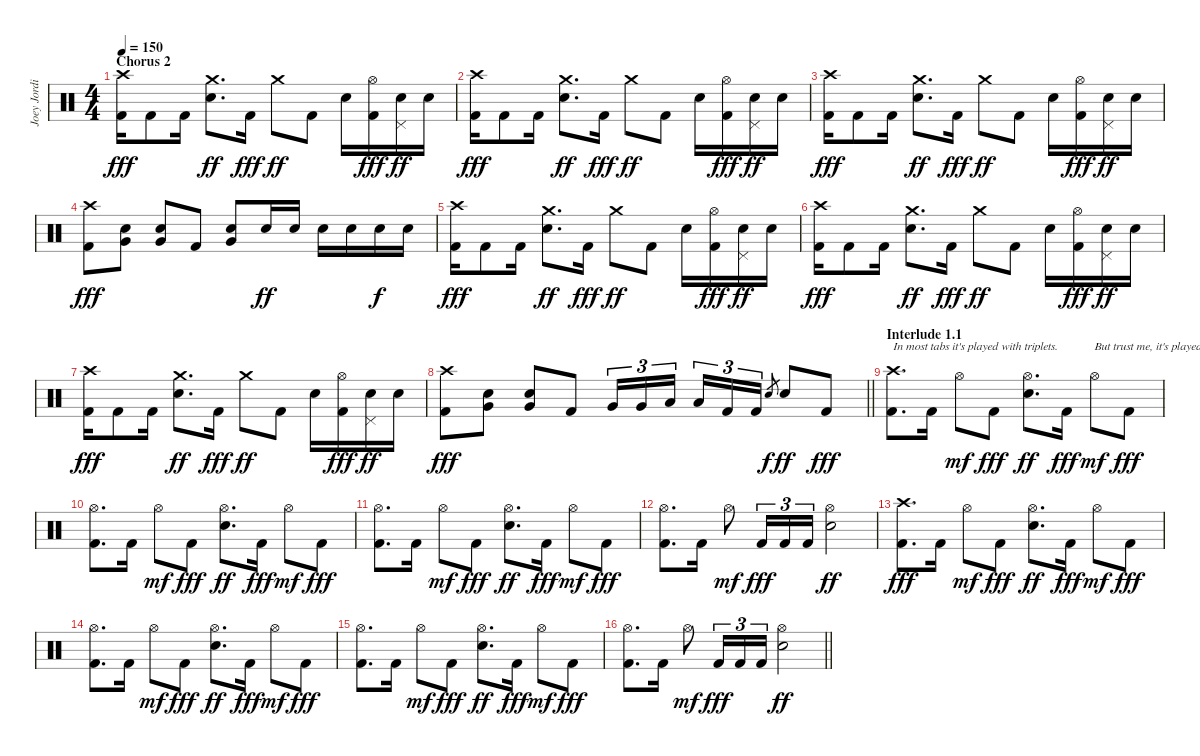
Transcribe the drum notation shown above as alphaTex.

\track ("Joey Jordison" "Joey Jordi") {instrument percussion}
\staff {score}
\articulation defaults
\ts (4 4)
\section ("" "Chorus 2")
\tempo 150
\clef neutral
\ks c
("Crash high (hit)" "Kick (hit) 2").16{dy fff} "Kick (hit) 2".8 "Kick (hit) 2".16 ("Crash medium (hit)" "Electric Snare (hit)").8{d dy ff} "Kick (hit) 2".16{dy fff} "Crash medium (hit)".8{dy ff} "Kick (hit) 2".8 "Electric Snare (hit)".16 ("Hi-Hat (open)" "Kick (hit) 2").16{dy fff} ("Electric Snare (hit)" "Pedal Hi-Hat (hit)").16{dy ff} "Electric Snare (hit)".16 |
("Crash high (hit)" "Kick (hit) 2").16{dy fff} "Kick (hit) 2".8 "Kick (hit) 2".16 ("Crash medium (hit)" "Electric Snare (hit)").8{d dy ff} "Kick (hit) 2".16{dy fff} "Crash medium (hit)".8{dy ff} "Kick (hit) 2".8 "Electric Snare (hit)".16 ("Hi-Hat (open)" "Kick (hit) 2").16{dy fff} ("Electric Snare (hit)" "Pedal Hi-Hat (hit)").16{dy ff} "Electric Snare (hit)".16 |
("Crash high (hit)" "Kick (hit) 2").16{dy fff} "Kick (hit) 2".8 "Kick (hit) 2".16 ("Crash medium (hit)" "Electric Snare (hit)").8{d dy ff} "Kick (hit) 2".16{dy fff} "Crash medium (hit)".8{dy ff} "Kick (hit) 2".8 "Electric Snare (hit)".16 ("Hi-Hat (open)" "Kick (hit) 2").16{dy fff} ("Electric Snare (hit)" "Pedal Hi-Hat (hit)").16{dy ff} "Electric Snare (hit)".16 |
("Crash high (hit)" "Kick (hit) 2").8{dy fff} ("Electric Snare (hit)" "Very Low Tom (hit)").8 ("Electric Snare (hit)" "Very Low Tom (hit)").8 "Kick (hit) 2".8 ("Electric Snare (hit)" "Very Low Tom (hit)").8 "Electric Snare (hit)".16{dy ff} "Electric Snare (hit)".16 "Electric Snare (hit)".16 "Electric Snare (hit)".16 "Electric Snare (hit)".16{dy f} "Electric Snare (hit)".16 |
("Crash high (hit)" "Kick (hit) 2").16{dy fff} "Kick (hit) 2".8 "Kick (hit) 2".16 ("Crash medium (hit)" "Electric Snare (hit)").8{d dy ff} "Kick (hit) 2".16{dy fff} "Crash medium (hit)".8{dy ff} "Kick (hit) 2".8 "Electric Snare (hit)".16 ("Hi-Hat (open)" "Kick (hit) 2").16{dy fff} ("Electric Snare (hit)" "Pedal Hi-Hat (hit)").16{dy ff} "Electric Snare (hit)".16 |
("Crash high (hit)" "Kick (hit) 2").16{dy fff} "Kick (hit) 2".8 "Kick (hit) 2".16 ("Crash medium (hit)" "Electric Snare (hit)").8{d dy ff} "Kick (hit) 2".16{dy fff} "Crash medium (hit)".8{dy ff} "Kick (hit) 2".8 "Electric Snare (hit)".16 ("Hi-Hat (open)" "Kick (hit) 2").16{dy fff} ("Electric Snare (hit)" "Pedal Hi-Hat (hit)").16{dy ff} "Electric Snare (hit)".16 |
("Crash high (hit)" "Kick (hit) 2").16{dy fff} "Kick (hit) 2".8 "Kick (hit) 2".16 ("Crash medium (hit)" "Electric Snare (hit)").8{d dy ff} "Kick (hit) 2".16{dy fff} "Crash medium (hit)".8{dy ff} "Kick (hit) 2".8 "Electric Snare (hit)".16 ("Hi-Hat (open)" "Kick (hit) 2").16{dy fff} ("Electric Snare (hit)" "Pedal Hi-Hat (hit)").16{dy ff} "Electric Snare (hit)".16 |
\barLineRight lightlight
("Crash high (hit)" "Kick (hit) 2").8{dy fff} ("Electric Snare (hit)" "Very Low Tom (hit)").8 ("Electric Snare (hit)" "Very Low Tom (hit)").8 "Kick (hit) 2".8 "Very Low Tom (hit)".16{tu (3 2)} "Very Low Tom (hit)".16{tu (3 2)} "Low Floor Tom (hit)".16{tu (3 2) beam splitsecondary} "Low Floor Tom (hit)".16{tu (3 2)} "Kick (hit) 2".16{tu (3 2)} "Kick (hit) 2".16{tu (3 2)} "Electric Snare (hit)".8{gr dy f} "Electric Snare (hit)".8{dy ff} "Kick (hit) 2".8{dy fff} |
\section ("" "Interlude 1.1")
("Crash high (hit)" "Kick (hit) 2").8{d txt "In most tabs it's played with triplets."} "Kick (hit) 2".16 "Hi-Hat (open)".8{dy mf} "Kick (hit) 2".8{dy fff} ("Hi-Hat (open)" "Electric Snare (hit)").8{d dy ff} "Kick (hit) 2".16{dy fff} "Hi-Hat (open)".8{txt "But trust me, it's played like this!" dy mf} "Kick (hit) 2".8{dy fff} |
("Hi-Hat (open)" "Kick (hit) 2").8{d} "Kick (hit) 2".16 "Hi-Hat (open)".8{dy mf} "Kick (hit) 2".8{dy fff} ("Hi-Hat (open)" "Electric Snare (hit)").8{d dy ff} "Kick (hit) 2".16{dy fff} "Hi-Hat (open)".8{dy mf} "Kick (hit) 2".8{dy fff} |
("Hi-Hat (open)" "Kick (hit) 2").8{d} "Kick (hit) 2".16 "Hi-Hat (open)".8{dy mf} "Kick (hit) 2".8{dy fff} ("Hi-Hat (open)" "Electric Snare (hit)").8{d dy ff} "Kick (hit) 2".16{dy fff} "Hi-Hat (open)".8{dy mf} "Kick (hit) 2".8{dy fff} |
("Hi-Hat (open)" "Kick (hit) 2").8{d} "Kick (hit) 2".16 "Hi-Hat (open)".8{dy mf} "Kick (hit) 2".16{tu (3 2) dy fff} "Kick (hit) 2".16{tu (3 2)} "Kick (hit) 2".16{tu (3 2)} ("Hi-Hat (open)" "Electric Snare (hit)").2{dy ff} |
("Crash high (hit)" "Kick (hit) 2").8{d dy fff} "Kick (hit) 2".16 "Hi-Hat (open)".8{dy mf} "Kick (hit) 2".8{dy fff} ("Hi-Hat (open)" "Electric Snare (hit)").8{d dy ff} "Kick (hit) 2".16{dy fff} "Hi-Hat (open)".8{dy mf} "Kick (hit) 2".8{dy fff} |
("Hi-Hat (open)" "Kick (hit) 2").8{d} "Kick (hit) 2".16 "Hi-Hat (open)".8{dy mf} "Kick (hit) 2".8{dy fff} ("Hi-Hat (open)" "Electric Snare (hit)").8{d dy ff} "Kick (hit) 2".16{dy fff} "Hi-Hat (open)".8{dy mf} "Kick (hit) 2".8{dy fff} |
("Hi-Hat (open)" "Kick (hit) 2").8{d} "Kick (hit) 2".16 "Hi-Hat (open)".8{dy mf} "Kick (hit) 2".8{dy fff} ("Hi-Hat (open)" "Electric Snare (hit)").8{d dy ff} "Kick (hit) 2".16{dy fff} "Hi-Hat (open)".8{dy mf} "Kick (hit) 2".8{dy fff} |
\barLineRight lightlight
("Hi-Hat (open)" "Kick (hit) 2").8{d} "Kick (hit) 2".16 "Hi-Hat (open)".8{dy mf} "Kick (hit) 2".16{tu (3 2) dy fff} "Kick (hit) 2".16{tu (3 2)} "Kick (hit) 2".16{tu (3 2)} ("Hi-Hat (open)" "Electric Snare (hit)").2{dy ff}
